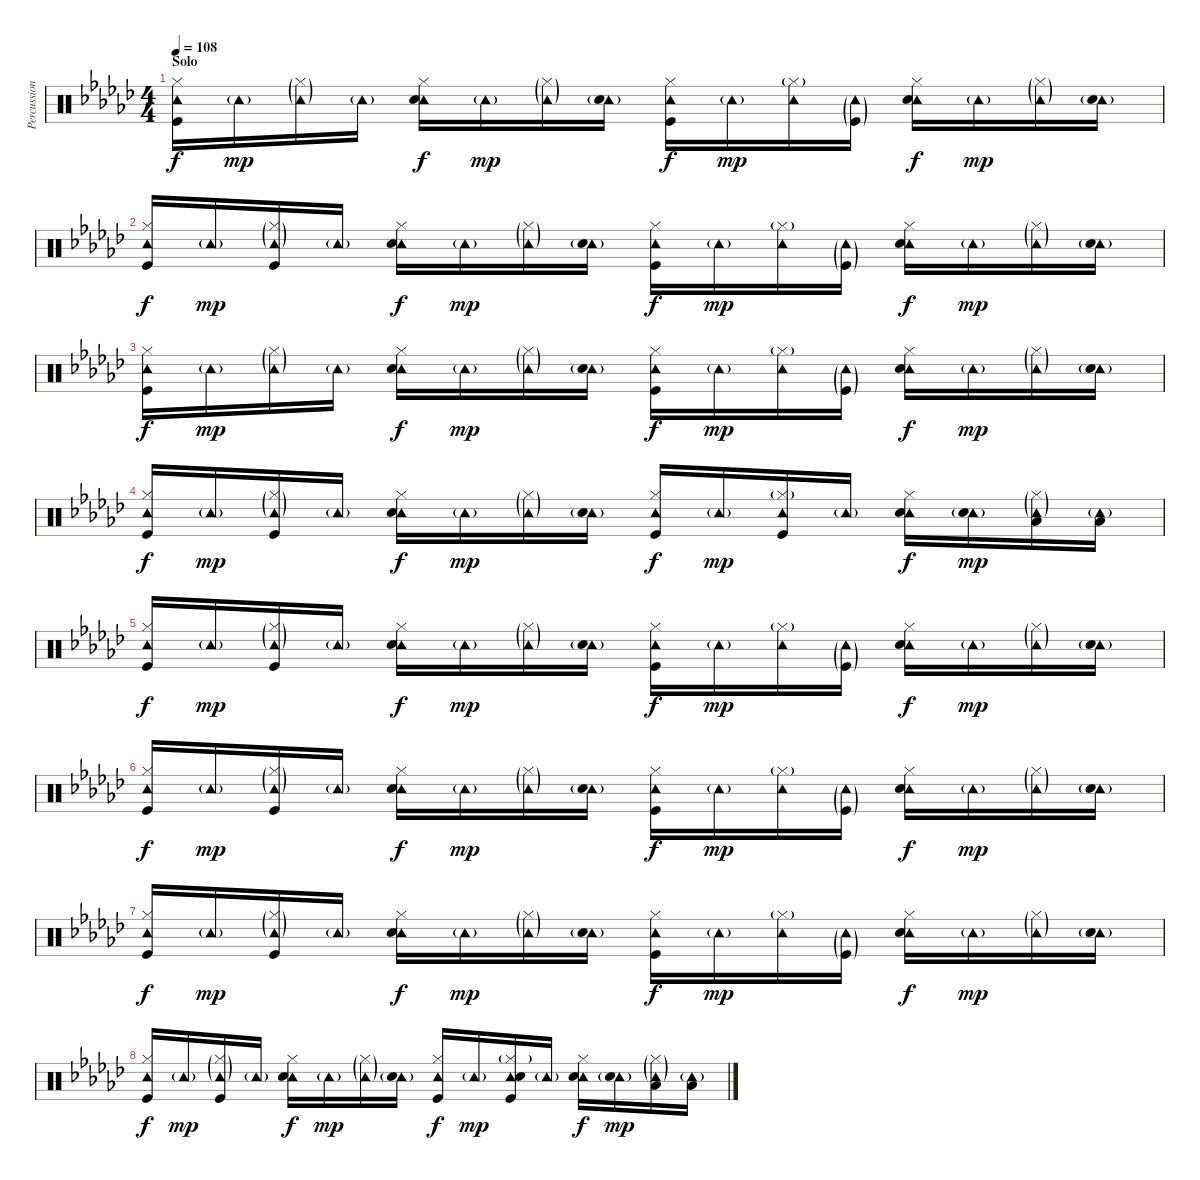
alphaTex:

\track ("Percussion" "Percussion") {instrument percussion}
\staff {score}
\articulation defaults
\ts (4 4)
\section ("" "Solo")
\tempo 108
\clef neutral
\ks gb
("Tambourine (hit)" "Hi-Hat (closed)" "Kick (hit)").16{dy f} "Tambourine (hit)"{g}.16{dy mp} ("Tambourine (hit)"{g} "Hi-Hat (closed)"{g}).16 "Tambourine (hit)"{g}.16 ("Tambourine (hit)" "Hi-Hat (closed)" "Snare (hit) 2").16{dy f} "Tambourine (hit)"{g}.16{dy mp} ("Tambourine (hit)"{g} "Hi-Hat (closed)"{g}).16 ("Tambourine (hit)"{g} "Snare (hit) 2"{g}).16 ("Tambourine (hit)" "Hi-Hat (closed)" "Kick (hit)").16{dy f} "Tambourine (hit)"{g}.16{dy mp} ("Tambourine (hit)" "Hi-Hat (closed)"{g}).16 ("Tambourine (hit)"{g} "Kick (hit)"{g}).16 ("Tambourine (hit)" "Hi-Hat (closed)" "Snare (hit) 2").16{dy f} "Tambourine (hit)"{g}.16{dy mp} ("Tambourine (hit)"{g} "Hi-Hat (closed)"{g}).16 ("Tambourine (hit)"{g} "Snare (hit) 2"{g}).16 |
("Tambourine (hit)" "Hi-Hat (closed)" "Kick (hit)").16{dy f} "Tambourine (hit)"{g}.16{dy mp} ("Tambourine (hit)"{g} "Hi-Hat (closed)"{g} "Kick (hit)").16 "Tambourine (hit)"{g}.16 ("Tambourine (hit)" "Hi-Hat (closed)" "Snare (hit) 2").16{dy f} "Tambourine (hit)"{g}.16{dy mp} ("Tambourine (hit)"{g} "Hi-Hat (closed)"{g}).16 ("Tambourine (hit)"{g} "Snare (hit) 2"{g}).16 ("Tambourine (hit)" "Hi-Hat (closed)" "Kick (hit)").16{dy f} "Tambourine (hit)"{g}.16{dy mp} ("Tambourine (hit)" "Hi-Hat (closed)"{g}).16 ("Tambourine (hit)"{g} "Kick (hit)"{g}).16 ("Tambourine (hit)" "Hi-Hat (closed)" "Snare (hit) 2").16{dy f} "Tambourine (hit)"{g}.16{dy mp} ("Tambourine (hit)"{g} "Hi-Hat (closed)"{g}).16 ("Tambourine (hit)"{g} "Snare (hit) 2"{g}).16 |
("Tambourine (hit)" "Hi-Hat (closed)" "Kick (hit)").16{dy f} "Tambourine (hit)"{g}.16{dy mp} ("Tambourine (hit)"{g} "Hi-Hat (closed)"{g}).16 "Tambourine (hit)"{g}.16 ("Tambourine (hit)" "Hi-Hat (closed)" "Snare (hit) 2").16{dy f} "Tambourine (hit)"{g}.16{dy mp} ("Tambourine (hit)"{g} "Hi-Hat (closed)"{g}).16 ("Tambourine (hit)"{g} "Snare (hit) 2"{g}).16 ("Tambourine (hit)" "Hi-Hat (closed)" "Kick (hit)").16{dy f} "Tambourine (hit)"{g}.16{dy mp} ("Tambourine (hit)" "Hi-Hat (closed)"{g}).16 ("Tambourine (hit)"{g} "Kick (hit)"{g}).16 ("Tambourine (hit)" "Hi-Hat (closed)" "Snare (hit) 2").16{dy f} "Tambourine (hit)"{g}.16{dy mp} ("Tambourine (hit)"{g} "Hi-Hat (closed)"{g}).16 ("Tambourine (hit)"{g} "Snare (hit) 2"{g}).16 |
("Tambourine (hit)" "Hi-Hat (closed)" "Kick (hit)").16{dy f} "Tambourine (hit)"{g}.16{dy mp} ("Tambourine (hit)"{g} "Hi-Hat (closed)"{g} "Kick (hit)").16 "Tambourine (hit)"{g}.16 ("Tambourine (hit)" "Hi-Hat (closed)" "Snare (hit) 2").16{dy f} "Tambourine (hit)"{g}.16{dy mp} ("Tambourine (hit)"{g} "Hi-Hat (closed)"{g}).16 ("Tambourine (hit)"{g} "Snare (hit) 2"{g}).16 ("Tambourine (hit)" "Hi-Hat (closed)" "Kick (hit)").16{dy f} "Tambourine (hit)"{g}.16{dy mp} ("Tambourine (hit)" "Hi-Hat (closed)"{g} "Kick (hit)").16 "Tambourine (hit)"{g}.16 ("Tambourine (hit)" "Hi-Hat (closed)" "Snare (hit) 2").16{dy f} ("Tambourine (hit)"{g} "Snare (hit) 2").16{dy mp} ("Tambourine (hit)"{g} "Hi-Hat (closed)"{g} "Low Tom (hit)").16 ("Tambourine (hit)"{g} "Low Tom (hit)").16 |
("Tambourine (hit)" "Hi-Hat (closed)" "Kick (hit)").16{dy f} "Tambourine (hit)"{g}.16{dy mp} ("Tambourine (hit)"{g} "Hi-Hat (closed)"{g} "Kick (hit)").16 "Tambourine (hit)"{g}.16 ("Tambourine (hit)" "Hi-Hat (closed)" "Snare (hit) 2").16{dy f} "Tambourine (hit)"{g}.16{dy mp} ("Tambourine (hit)"{g} "Hi-Hat (closed)"{g}).16 ("Tambourine (hit)"{g} "Snare (hit) 2"{g}).16 ("Tambourine (hit)" "Hi-Hat (closed)" "Kick (hit)").16{dy f} "Tambourine (hit)"{g}.16{dy mp} ("Tambourine (hit)" "Hi-Hat (closed)"{g}).16 ("Tambourine (hit)"{g} "Kick (hit)"{g}).16 ("Tambourine (hit)" "Hi-Hat (closed)" "Snare (hit) 2").16{dy f} "Tambourine (hit)"{g}.16{dy mp} ("Tambourine (hit)"{g} "Hi-Hat (closed)"{g}).16 ("Tambourine (hit)"{g} "Snare (hit) 2"{g}).16 |
("Tambourine (hit)" "Hi-Hat (closed)" "Kick (hit)").16{dy f} "Tambourine (hit)"{g}.16{dy mp} ("Tambourine (hit)"{g} "Hi-Hat (closed)"{g} "Kick (hit)").16 "Tambourine (hit)"{g}.16 ("Tambourine (hit)" "Hi-Hat (closed)" "Snare (hit) 2").16{dy f} "Tambourine (hit)"{g}.16{dy mp} ("Tambourine (hit)"{g} "Hi-Hat (closed)"{g}).16 ("Tambourine (hit)"{g} "Snare (hit) 2"{g}).16 ("Tambourine (hit)" "Hi-Hat (closed)" "Kick (hit)").16{dy f} "Tambourine (hit)"{g}.16{dy mp} ("Tambourine (hit)" "Hi-Hat (closed)"{g}).16 ("Tambourine (hit)"{g} "Kick (hit)"{g}).16 ("Tambourine (hit)" "Hi-Hat (closed)" "Snare (hit) 2").16{dy f} "Tambourine (hit)"{g}.16{dy mp} ("Tambourine (hit)"{g} "Hi-Hat (closed)"{g}).16 ("Tambourine (hit)"{g} "Snare (hit) 2"{g}).16 |
("Tambourine (hit)" "Hi-Hat (closed)" "Kick (hit)").16{dy f} "Tambourine (hit)"{g}.16{dy mp} ("Tambourine (hit)"{g} "Hi-Hat (closed)"{g} "Kick (hit)").16 "Tambourine (hit)"{g}.16 ("Tambourine (hit)" "Hi-Hat (closed)" "Snare (hit) 2").16{dy f} "Tambourine (hit)"{g}.16{dy mp} ("Tambourine (hit)"{g} "Hi-Hat (closed)"{g}).16 ("Tambourine (hit)"{g} "Snare (hit) 2"{g}).16 ("Tambourine (hit)" "Hi-Hat (closed)" "Kick (hit)").16{dy f} "Tambourine (hit)"{g}.16{dy mp} ("Tambourine (hit)" "Hi-Hat (closed)"{g}).16 ("Tambourine (hit)"{g} "Kick (hit)"{g}).16 ("Tambourine (hit)" "Hi-Hat (closed)" "Snare (hit) 2").16{dy f} "Tambourine (hit)"{g}.16{dy mp} ("Tambourine (hit)"{g} "Hi-Hat (closed)"{g}).16 ("Tambourine (hit)"{g} "Snare (hit) 2"{g}).16 |
("Tambourine (hit)" "Hi-Hat (closed)" "Kick (hit)").16{dy f} "Tambourine (hit)"{g}.16{dy mp} ("Tambourine (hit)"{g} "Hi-Hat (closed)"{g} "Kick (hit)").16 "Tambourine (hit)"{g}.16 ("Tambourine (hit)" "Hi-Hat (closed)" "Snare (hit) 2").16{dy f} "Tambourine (hit)"{g}.16{dy mp} ("Tambourine (hit)"{g} "Hi-Hat (closed)"{g}).16 ("Tambourine (hit)"{g} "Snare (hit) 2"{g}).16 ("Tambourine (hit)" "Hi-Hat (closed)" "Kick (hit)").16{dy f} "Tambourine (hit)"{g}.16{dy mp} ("Tambourine (hit)" "Hi-Hat (closed)"{g} "Snare (hit) 2" "Kick (hit)").16 "Tambourine (hit)"{g}.16 ("Tambourine (hit)" "Hi-Hat (closed)" "Snare (hit) 2").16{dy f} ("Tambourine (hit)"{g} "Snare (hit) 2").16{dy mp} ("Tambourine (hit)"{g} "Hi-Hat (closed)"{g} "Low Tom (hit)").16 ("Tambourine (hit)"{g} "Low Tom (hit)").16
